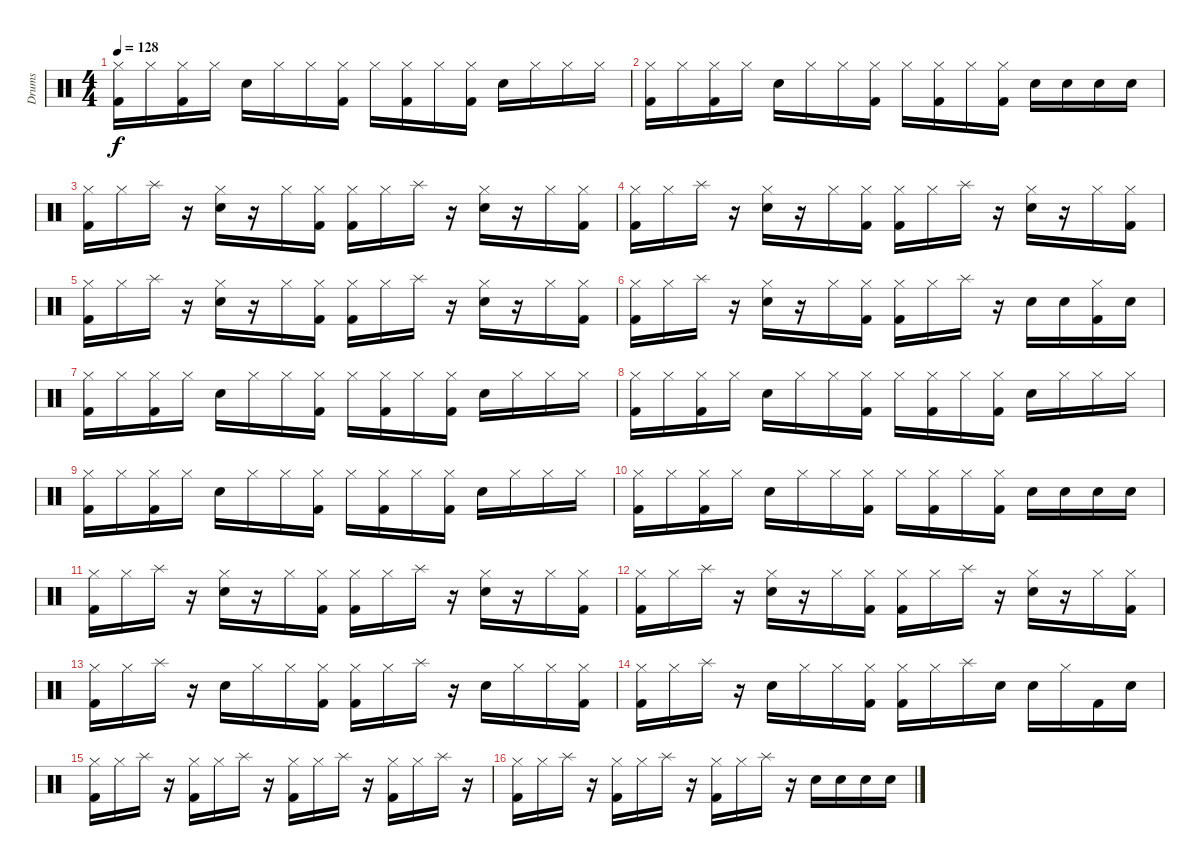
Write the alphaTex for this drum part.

\track ("Drums" "Drums") {instrument percussion}
\staff {score}
\articulation defaults
\ts (4 4)
\tempo 128
\clef neutral
\ks c
("Hi-Hat (closed)" "Kick (hit) 2").16{dy f} "Hi-Hat (closed)".16 ("Hi-Hat (closed)" "Kick (hit) 2").16 "Hi-Hat (closed)".16 "Snare (hit) 2".16 "Hi-Hat (closed)".16 "Hi-Hat (closed)".16 ("Hi-Hat (closed)" "Kick (hit) 2").16 "Hi-Hat (closed)".16 ("Hi-Hat (closed)" "Kick (hit) 2").16 "Hi-Hat (closed)".16 ("Hi-Hat (closed)" "Kick (hit) 2").16 "Snare (hit) 2".16 "Hi-Hat (closed)".16 "Hi-Hat (closed)".16 "Hi-Hat (closed)".16 |
("Hi-Hat (closed)" "Kick (hit) 2").16 "Hi-Hat (closed)".16 ("Hi-Hat (closed)" "Kick (hit) 2").16 "Hi-Hat (closed)".16 "Snare (hit) 2".16 "Hi-Hat (closed)".16 "Hi-Hat (closed)".16 ("Hi-Hat (closed)" "Kick (hit) 2").16 "Hi-Hat (closed)".16 ("Hi-Hat (closed)" "Kick (hit) 2").16 "Hi-Hat (closed)".16 ("Hi-Hat (closed)" "Kick (hit) 2").16 "Snare (hit) 2".16 "Snare (hit) 2".16 "Snare (hit) 2".16 "Snare (hit) 2".16 |
("Hi-Hat (closed)" "Kick (hit) 2").16 "Hi-Hat (closed)".16 "Splash (hit)".16 r.16 ("Hi-Hat (closed)" "Snare (hit) 2").16 r.16 "Hi-Hat (closed)".16 ("Hi-Hat (closed)" "Kick (hit) 2").16 ("Hi-Hat (closed)" "Kick (hit) 2").16 "Hi-Hat (closed)".16 "Splash (hit)".16 r.16 ("Hi-Hat (closed)" "Snare (hit) 2").16 r.16 "Hi-Hat (closed)".16 ("Hi-Hat (closed)" "Kick (hit) 2").16 |
("Hi-Hat (closed)" "Kick (hit) 2").16 "Hi-Hat (closed)".16 "Splash (hit)".16 r.16 ("Hi-Hat (closed)" "Snare (hit) 2").16 r.16 "Hi-Hat (closed)".16 ("Hi-Hat (closed)" "Kick (hit) 2").16 ("Hi-Hat (closed)" "Kick (hit) 2").16 "Hi-Hat (closed)".16 "Splash (hit)".16 r.16 ("Hi-Hat (closed)" "Snare (hit) 2").16 r.16 "Hi-Hat (closed)".16 ("Hi-Hat (closed)" "Kick (hit) 2").16 |
("Hi-Hat (closed)" "Kick (hit) 2").16 "Hi-Hat (closed)".16 "Splash (hit)".16 r.16 ("Hi-Hat (closed)" "Snare (hit) 2").16 r.16 "Hi-Hat (closed)".16 ("Hi-Hat (closed)" "Kick (hit) 2").16 ("Hi-Hat (closed)" "Kick (hit) 2").16 "Hi-Hat (closed)".16 "Splash (hit)".16 r.16 ("Hi-Hat (closed)" "Snare (hit) 2").16 r.16 "Hi-Hat (closed)".16 ("Hi-Hat (closed)" "Kick (hit) 2").16 |
("Hi-Hat (closed)" "Kick (hit) 2").16 "Hi-Hat (closed)".16 "Splash (hit)".16 r.16 ("Hi-Hat (closed)" "Snare (hit) 2").16 r.16 "Hi-Hat (closed)".16 ("Hi-Hat (closed)" "Kick (hit) 2").16 ("Hi-Hat (closed)" "Kick (hit) 2").16 "Hi-Hat (closed)".16 "Splash (hit)".16 r.16 "Snare (hit) 2".16 "Snare (hit) 2".16 ("Hi-Hat (closed)" "Kick (hit) 2").16 "Snare (hit) 2".16 |
("Hi-Hat (closed)" "Kick (hit) 2").16 "Hi-Hat (closed)".16 ("Hi-Hat (closed)" "Kick (hit) 2").16 "Hi-Hat (closed)".16 "Snare (hit) 2".16 "Hi-Hat (closed)".16 "Hi-Hat (closed)".16 ("Hi-Hat (closed)" "Kick (hit) 2").16 "Hi-Hat (closed)".16 ("Hi-Hat (closed)" "Kick (hit) 2").16 "Hi-Hat (closed)".16 ("Hi-Hat (closed)" "Kick (hit) 2").16 "Snare (hit) 2".16 "Hi-Hat (closed)".16 "Hi-Hat (closed)".16 "Hi-Hat (closed)".16 |
("Hi-Hat (closed)" "Kick (hit) 2").16 "Hi-Hat (closed)".16 ("Hi-Hat (closed)" "Kick (hit) 2").16 "Hi-Hat (closed)".16 "Snare (hit) 2".16 "Hi-Hat (closed)".16 "Hi-Hat (closed)".16 ("Hi-Hat (closed)" "Kick (hit) 2").16 "Hi-Hat (closed)".16 ("Hi-Hat (closed)" "Kick (hit) 2").16 "Hi-Hat (closed)".16 ("Hi-Hat (closed)" "Kick (hit) 2").16 "Snare (hit) 2".16 "Hi-Hat (closed)".16 "Hi-Hat (closed)".16 "Hi-Hat (closed)".16 |
("Hi-Hat (closed)" "Kick (hit) 2").16 "Hi-Hat (closed)".16 ("Hi-Hat (closed)" "Kick (hit) 2").16 "Hi-Hat (closed)".16 "Snare (hit) 2".16 "Hi-Hat (closed)".16 "Hi-Hat (closed)".16 ("Hi-Hat (closed)" "Kick (hit) 2").16 "Hi-Hat (closed)".16 ("Hi-Hat (closed)" "Kick (hit) 2").16 "Hi-Hat (closed)".16 ("Hi-Hat (closed)" "Kick (hit) 2").16 "Snare (hit) 2".16 "Hi-Hat (closed)".16 "Hi-Hat (closed)".16 "Hi-Hat (closed)".16 |
("Hi-Hat (closed)" "Kick (hit) 2").16 "Hi-Hat (closed)".16 ("Hi-Hat (closed)" "Kick (hit) 2").16 "Hi-Hat (closed)".16 "Snare (hit) 2".16 "Hi-Hat (closed)".16 "Hi-Hat (closed)".16 ("Hi-Hat (closed)" "Kick (hit) 2").16 "Hi-Hat (closed)".16 ("Hi-Hat (closed)" "Kick (hit) 2").16 "Hi-Hat (closed)".16 ("Hi-Hat (closed)" "Kick (hit) 2").16 "Snare (hit) 2".16 "Snare (hit) 2".16 "Snare (hit) 2".16 "Snare (hit) 2".16 |
("Hi-Hat (closed)" "Kick (hit) 2").16 "Hi-Hat (closed)".16 "Splash (hit)".16 r.16 ("Hi-Hat (closed)" "Snare (hit) 2").16 r.16 "Hi-Hat (closed)".16 ("Hi-Hat (closed)" "Kick (hit) 2").16 ("Hi-Hat (closed)" "Kick (hit) 2").16 "Hi-Hat (closed)".16 "Splash (hit)".16 r.16 ("Hi-Hat (closed)" "Snare (hit) 2").16 r.16 "Hi-Hat (closed)".16 ("Hi-Hat (closed)" "Kick (hit) 2").16 |
("Hi-Hat (closed)" "Kick (hit) 2").16 "Hi-Hat (closed)".16 "Splash (hit)".16 r.16 ("Hi-Hat (closed)" "Snare (hit) 2").16 r.16 "Hi-Hat (closed)".16 ("Hi-Hat (closed)" "Kick (hit) 2").16 ("Hi-Hat (closed)" "Kick (hit) 2").16 "Hi-Hat (closed)".16 "Splash (hit)".16 r.16 ("Hi-Hat (closed)" "Snare (hit) 2").16 r.16 "Hi-Hat (closed)".16 ("Hi-Hat (closed)" "Kick (hit) 2").16 |
("Hi-Hat (closed)" "Kick (hit) 2").16 "Hi-Hat (closed)".16 "Splash (hit)".16 r.16 "Snare (hit) 2".16 "Hi-Hat (closed)".16 "Hi-Hat (closed)".16 ("Hi-Hat (closed)" "Kick (hit) 2").16 ("Hi-Hat (closed)" "Kick (hit) 2").16 "Hi-Hat (closed)".16 "Splash (hit)".16 r.16 "Snare (hit) 2".16 "Hi-Hat (closed)".16 "Hi-Hat (closed)".16 ("Hi-Hat (closed)" "Kick (hit) 2").16 |
("Hi-Hat (closed)" "Kick (hit) 2").16 "Hi-Hat (closed)".16 "Splash (hit)".16 r.16 "Snare (hit) 2".16 "Hi-Hat (closed)".16 "Hi-Hat (closed)".16 ("Hi-Hat (closed)" "Kick (hit) 2").16 ("Hi-Hat (closed)" "Kick (hit) 2").16 "Hi-Hat (closed)".16 "Splash (hit)".16 "Snare (hit) 2".16 "Snare (hit) 2".16 "Hi-Hat (closed)".16 "Kick (hit) 2".16 "Snare (hit) 2".16 |
("Hi-Hat (closed)" "Kick (hit) 2").16 "Hi-Hat (closed)".16 "Splash (hit)".16 r.16 ("Hi-Hat (closed)" "Kick (hit) 2").16 "Hi-Hat (closed)".16 "Splash (hit)".16 r.16 ("Hi-Hat (closed)" "Kick (hit) 2").16 "Hi-Hat (closed)".16 "Splash (hit)".16 r.16 ("Hi-Hat (closed)" "Kick (hit) 2").16 "Hi-Hat (closed)".16 "Splash (hit)".16 r.16 |
("Hi-Hat (closed)" "Kick (hit) 2").16 "Hi-Hat (closed)".16 "Splash (hit)".16 r.16 ("Hi-Hat (closed)" "Kick (hit) 2").16 "Hi-Hat (closed)".16 "Splash (hit)".16 r.16 ("Hi-Hat (closed)" "Kick (hit) 2").16 "Hi-Hat (closed)".16 "Splash (hit)".16 r.16 "Snare (hit) 2".16 "Snare (hit) 2".16 "Snare (hit) 2".16 "Snare (hit) 2".16
